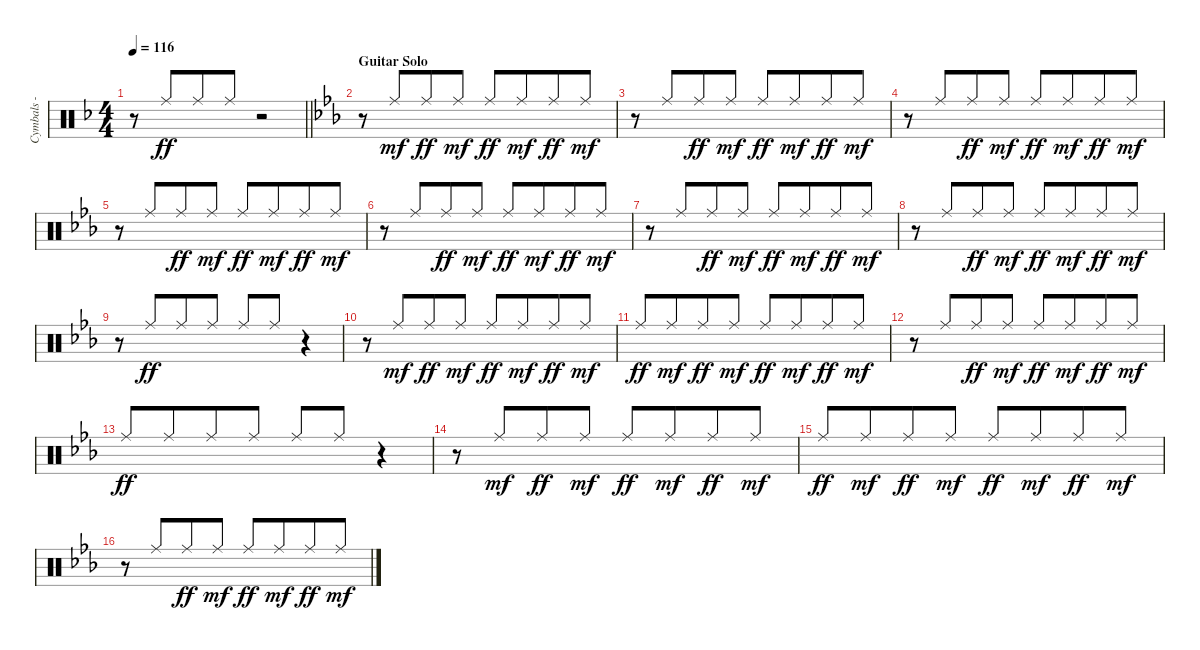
\track ("Cymbals - ride" "Cymbals - ") {instrument percussion}
\staff {score}
\articulation defaults
\ts (4 4)
\tempo 116
\clef neutral
\barLineRight lightlight
\ks f
r.8{dy mf} "Ride (middle)".8{dy ff beam Up beam merge} "Ride (middle)".8{beam Up} "Ride (middle)".8{beam Up} r.2 |
\section ("" "Guitar Solo")
\ks eb
r.8 "Ride (middle)".8{dy mf beam Up beam merge} "Ride (middle)".8{dy ff beam Up} "Ride (middle)".8{dy mf beam Up} "Ride (middle)".8{dy ff beam Up} "Ride (middle)".8{dy mf beam Up beam merge} "Ride (middle)".8{dy ff beam Up} "Ride (middle)".8{dy mf beam Up} |
r.8 "Ride (middle)".8{beam Up beam merge} "Ride (middle)".8{dy ff beam Up} "Ride (middle)".8{dy mf beam Up} "Ride (middle)".8{dy ff beam Up} "Ride (middle)".8{dy mf beam Up beam merge} "Ride (middle)".8{dy ff beam Up} "Ride (middle)".8{dy mf beam Up} |
r.8 "Ride (middle)".8{beam Up beam merge} "Ride (middle)".8{dy ff beam Up} "Ride (middle)".8{dy mf beam Up} "Ride (middle)".8{dy ff beam Up} "Ride (middle)".8{dy mf beam Up beam merge} "Ride (middle)".8{dy ff beam Up} "Ride (middle)".8{dy mf beam Up} |
r.8 "Ride (middle)".8{beam Up beam merge} "Ride (middle)".8{dy ff beam Up} "Ride (middle)".8{dy mf beam Up} "Ride (middle)".8{dy ff beam Up} "Ride (middle)".8{dy mf beam Up beam merge} "Ride (middle)".8{dy ff beam Up} "Ride (middle)".8{dy mf beam Up} |
r.8 "Ride (middle)".8{beam Up beam merge} "Ride (middle)".8{dy ff beam Up} "Ride (middle)".8{dy mf beam Up} "Ride (middle)".8{dy ff beam Up} "Ride (middle)".8{dy mf beam Up beam merge} "Ride (middle)".8{dy ff beam Up} "Ride (middle)".8{dy mf beam Up} |
r.8 "Ride (middle)".8{beam Up beam merge} "Ride (middle)".8{dy ff beam Up} "Ride (middle)".8{dy mf beam Up} "Ride (middle)".8{dy ff beam Up} "Ride (middle)".8{dy mf beam Up beam merge} "Ride (middle)".8{dy ff beam Up} "Ride (middle)".8{dy mf beam Up} |
r.8 "Ride (middle)".8{beam Up beam merge} "Ride (middle)".8{dy ff beam Up} "Ride (middle)".8{dy mf beam Up} "Ride (middle)".8{dy ff beam Up} "Ride (middle)".8{dy mf beam Up beam merge} "Ride (middle)".8{dy ff beam Up} "Ride (middle)".8{dy mf beam Up} |
r.8 "Ride (middle)".8{dy ff beam Up beam merge} "Ride (middle)".8{beam Up} "Ride (middle)".8{beam Up} "Ride (middle)".8{beam Up} "Ride (middle)".8{beam Up beam merge} r.4 |
r.8 "Ride (middle)".8{dy mf beam Up beam merge} "Ride (middle)".8{dy ff beam Up} "Ride (middle)".8{dy mf beam Up} "Ride (middle)".8{dy ff beam Up} "Ride (middle)".8{dy mf beam Up beam merge} "Ride (middle)".8{dy ff beam Up} "Ride (middle)".8{dy mf beam Up} |
"Ride (middle)".8{dy ff beam Up} "Ride (middle)".8{dy mf beam Up beam merge} "Ride (middle)".8{dy ff beam Up} "Ride (middle)".8{dy mf beam Up} "Ride (middle)".8{dy ff beam Up} "Ride (middle)".8{dy mf beam Up beam merge} "Ride (middle)".8{dy ff beam Up} "Ride (middle)".8{dy mf beam Up} |
r.8 "Ride (middle)".8{beam Up beam merge} "Ride (middle)".8{dy ff beam Up} "Ride (middle)".8{dy mf beam Up} "Ride (middle)".8{dy ff beam Up} "Ride (middle)".8{dy mf beam Up beam merge} "Ride (middle)".8{dy ff beam Up} "Ride (middle)".8{dy mf beam Up} |
"Ride (middle)".8{dy ff beam Up} "Ride (middle)".8{beam Up beam merge} "Ride (middle)".8{beam Up} "Ride (middle)".8{beam Up} "Ride (middle)".8{beam Up beam merge} "Ride (middle)".8{beam Up} r.4 |
r.8 "Ride (middle)".8{dy mf beam Up beam merge} "Ride (middle)".8{dy ff beam Up} "Ride (middle)".8{dy mf beam Up} "Ride (middle)".8{dy ff beam Up} "Ride (middle)".8{dy mf beam Up beam merge} "Ride (middle)".8{dy ff beam Up} "Ride (middle)".8{dy mf beam Up} |
"Ride (middle)".8{dy ff beam Up} "Ride (middle)".8{dy mf beam Up beam merge} "Ride (middle)".8{dy ff beam Up} "Ride (middle)".8{dy mf beam Up} "Ride (middle)".8{dy ff beam Up} "Ride (middle)".8{dy mf beam Up beam merge} "Ride (middle)".8{dy ff beam Up} "Ride (middle)".8{dy mf beam Up} |
r.8 "Ride (middle)".8{beam Up beam merge} "Ride (middle)".8{dy ff beam Up} "Ride (middle)".8{dy mf beam Up} "Ride (middle)".8{dy ff beam Up} "Ride (middle)".8{dy mf beam Up beam merge} "Ride (middle)".8{dy ff beam Up} "Ride (middle)".8{dy mf beam Up}
